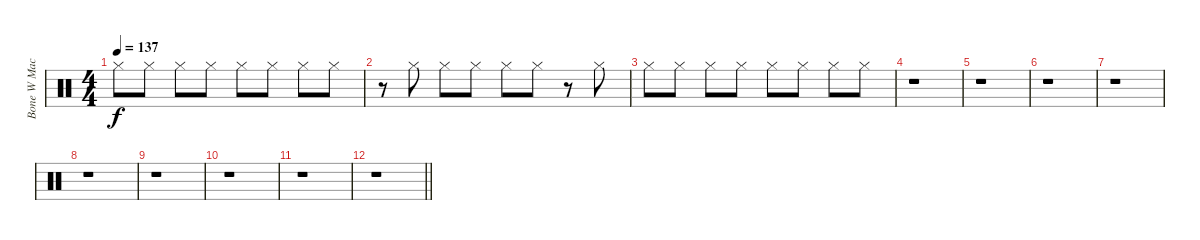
\track ("Bone W Machine Cimbals" "Bone W Mac") {instrument percussion}
\staff {score}
\articulation defaults
\ts (4 4)
\tempo 137
\clef neutral
\ks c "Hi-Hat (closed)".8{dy f} "Hi-Hat (closed)".8 "Hi-Hat (closed)".8 "Hi-Hat (closed)".8 "Hi-Hat (closed)".8 "Hi-Hat (closed)".8 "Hi-Hat (closed)".8 "Hi-Hat (closed)".8
|
r.8 "Hi-Hat (closed)".8 "Hi-Hat (closed)".8 "Hi-Hat (closed)".8 "Hi-Hat (closed)".8 "Hi-Hat (closed)".8 r.8 "Hi-Hat (closed)".8 |
"Hi-Hat (closed)".8 "Hi-Hat (closed)".8 "Hi-Hat (closed)".8 "Hi-Hat (closed)".8 "Hi-Hat (closed)".8 "Hi-Hat (closed)".8 "Hi-Hat (closed)".8 "Hi-Hat (closed)".8 |
r.1 |
r.1 |
r.1 |
r.1 |
r.1 |
r.1 |
r.1 |
r.1 |
\barLineRight lightlight
r.1
